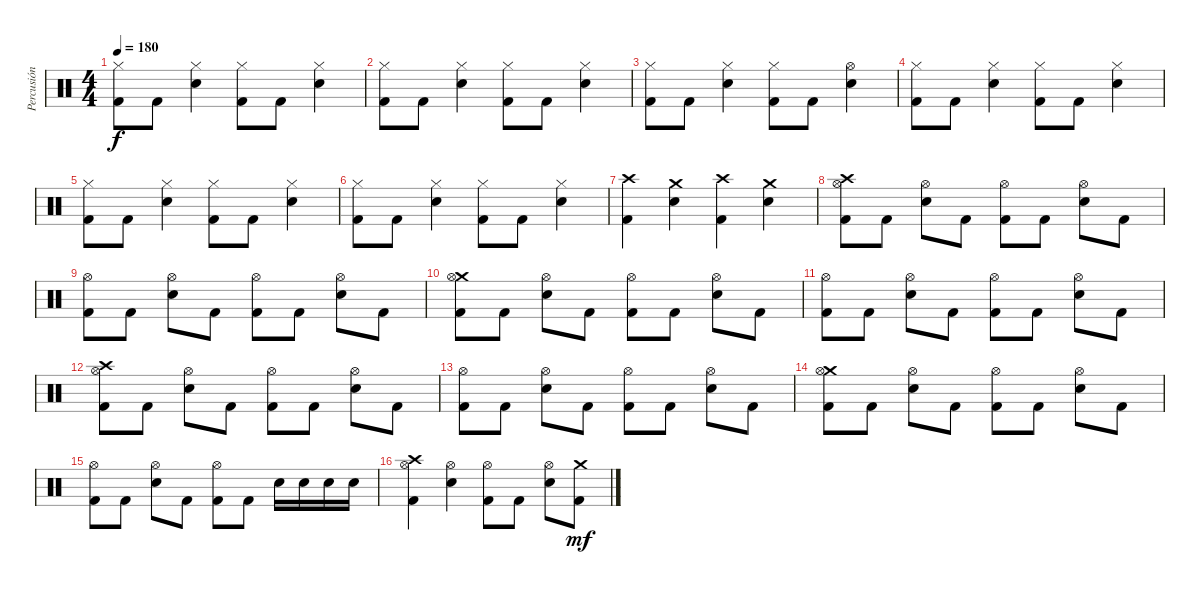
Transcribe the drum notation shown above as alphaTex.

\track ("Percusión" "Percusión") {instrument percussion}
\staff {score}
\articulation defaults
\ts (4 4)
\tempo 180
\clef neutral
\ks c
("Hi-Hat (closed)" "Kick (hit) 2").8{dy f} "Kick (hit) 2".8 ("Hi-Hat (closed)" "Electric Snare (hit)").4 ("Hi-Hat (closed)" "Kick (hit) 2").8 "Kick (hit) 2".8 ("Hi-Hat (closed)" "Electric Snare (hit)").4 |
("Hi-Hat (closed)" "Kick (hit) 2").8 "Kick (hit) 2".8 ("Hi-Hat (closed)" "Electric Snare (hit)").4 ("Hi-Hat (closed)" "Kick (hit) 2").8 "Kick (hit) 2".8 ("Hi-Hat (closed)" "Electric Snare (hit)").4 |
("Hi-Hat (closed)" "Kick (hit) 2").8 "Kick (hit) 2".8 ("Hi-Hat (closed)" "Electric Snare (hit)").4 ("Hi-Hat (closed)" "Kick (hit) 2").8 "Kick (hit) 2".8 ("Hi-Hat (open)" "Electric Snare (hit)").4 |
("Hi-Hat (closed)" "Kick (hit) 2").8 "Kick (hit) 2".8 ("Hi-Hat (closed)" "Electric Snare (hit)").4 ("Hi-Hat (closed)" "Kick (hit) 2").8 "Kick (hit) 2".8 ("Hi-Hat (closed)" "Electric Snare (hit)").4 |
("Hi-Hat (closed)" "Kick (hit) 2").8 "Kick (hit) 2".8 ("Hi-Hat (closed)" "Electric Snare (hit)").4 ("Hi-Hat (closed)" "Kick (hit) 2").8 "Kick (hit) 2".8 ("Hi-Hat (closed)" "Electric Snare (hit)").4 |
("Hi-Hat (closed)" "Kick (hit) 2").8 "Kick (hit) 2".8 ("Hi-Hat (closed)" "Electric Snare (hit)").4 ("Hi-Hat (closed)" "Kick (hit) 2").8 "Kick (hit) 2".8 ("Hi-Hat (closed)" "Electric Snare (hit)").4 |
("Crash high (hit)" "Kick (hit) 2").4 ("Crash medium (hit)" "Electric Snare (hit)").4 ("Crash high (hit)" "Kick (hit) 2").4 ("Crash medium (hit)" "Electric Snare (hit)").4 |
("Crash high (hit)" "Hi-Hat (open)" "Kick (hit) 2").8 "Kick (hit) 2".8 ("Hi-Hat (open)" "Electric Snare (hit)").8 "Kick (hit) 2".8 ("Hi-Hat (open)" "Kick (hit) 2").8 "Kick (hit) 2".8 ("Hi-Hat (open)" "Electric Snare (hit)").8 "Kick (hit) 2".8 |
("Hi-Hat (open)" "Kick (hit) 2").8 "Kick (hit) 2".8 ("Hi-Hat (open)" "Electric Snare (hit)").8 "Kick (hit) 2".8 ("Hi-Hat (open)" "Kick (hit) 2").8 "Kick (hit) 2".8 ("Hi-Hat (open)" "Electric Snare (hit)").8 "Kick (hit) 2".8 |
("Crash medium (hit)" "Hi-Hat (open)" "Kick (hit) 2").8 "Kick (hit) 2".8 ("Hi-Hat (open)" "Electric Snare (hit)").8 "Kick (hit) 2".8 ("Hi-Hat (open)" "Kick (hit) 2").8 "Kick (hit) 2".8 ("Hi-Hat (open)" "Electric Snare (hit)").8 "Kick (hit) 2".8 |
("Hi-Hat (open)" "Kick (hit) 2").8 "Kick (hit) 2".8 ("Hi-Hat (open)" "Electric Snare (hit)").8 "Kick (hit) 2".8 ("Hi-Hat (open)" "Kick (hit) 2").8 "Kick (hit) 2".8 ("Hi-Hat (open)" "Electric Snare (hit)").8 "Kick (hit) 2".8 |
("Crash high (hit)" "Hi-Hat (open)" "Kick (hit) 2").8 "Kick (hit) 2".8 ("Hi-Hat (open)" "Electric Snare (hit)").8 "Kick (hit) 2".8 ("Hi-Hat (open)" "Kick (hit) 2").8 "Kick (hit) 2".8 ("Hi-Hat (open)" "Electric Snare (hit)").8 "Kick (hit) 2".8 |
("Hi-Hat (open)" "Kick (hit) 2").8 "Kick (hit) 2".8 ("Hi-Hat (open)" "Electric Snare (hit)").8 "Kick (hit) 2".8 ("Hi-Hat (open)" "Kick (hit) 2").8 "Kick (hit) 2".8 ("Hi-Hat (open)" "Electric Snare (hit)").8 "Kick (hit) 2".8 |
("Crash medium (hit)" "Hi-Hat (open)" "Kick (hit) 2").8 "Kick (hit) 2".8 ("Hi-Hat (open)" "Electric Snare (hit)").8 "Kick (hit) 2".8 ("Hi-Hat (open)" "Kick (hit) 2").8 "Kick (hit) 2".8 ("Hi-Hat (open)" "Electric Snare (hit)").8 "Kick (hit) 2".8 |
("Hi-Hat (open)" "Kick (hit) 2").8 "Kick (hit) 2".8 ("Hi-Hat (open)" "Electric Snare (hit)").8 "Kick (hit) 2".8 ("Hi-Hat (open)" "Kick (hit) 2").8 "Kick (hit) 2".8 "Electric Snare (hit)".16 "Electric Snare (hit)".16 "Electric Snare (hit)".16 "Electric Snare (hit)".16 |
("Crash high (hit)" "Hi-Hat (open)" "Kick (hit) 2").4 ("Hi-Hat (open)" "Electric Snare (hit)").4 ("Hi-Hat (open)" "Kick (hit) 2").8 "Kick (hit) 2".8 ("Hi-Hat (open)" "Electric Snare (hit)").8 ("Crash medium (hit)" "Kick (hit) 2").8{dy mf}
